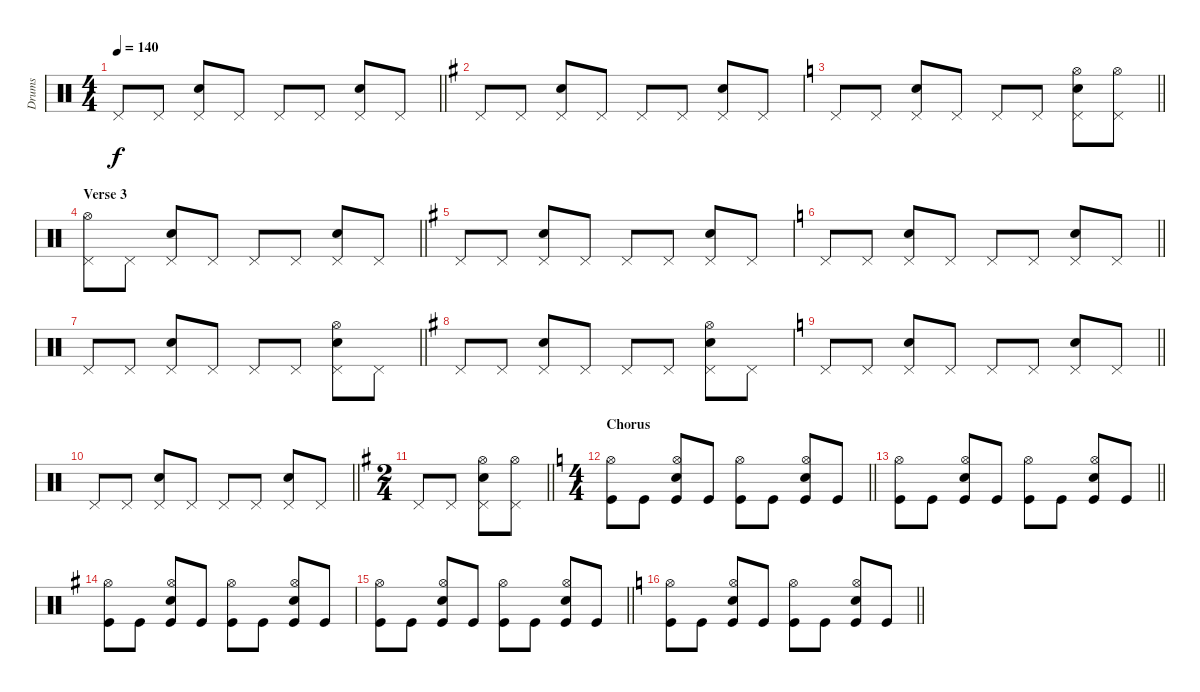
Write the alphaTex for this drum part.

\track ("Drums" "Drums") {instrument percussion}
\staff {score}
\articulation defaults
\ts (4 4)
\tempo 140
\clef neutral
\barLineRight lightlight
\ks c "Pedal Hi-Hat (hit)".8{dy f} "Pedal Hi-Hat (hit)".8
("Pedal Hi-Hat (hit)" "Snare (hit) 2").8 "Pedal Hi-Hat (hit)".8 "Pedal Hi-Hat (hit)".8 "Pedal Hi-Hat (hit)".8 ("Pedal Hi-Hat (hit)" "Snare (hit) 2").8 "Pedal Hi-Hat (hit)".8 |
\ks g "Pedal Hi-Hat (hit)".8 "Pedal Hi-Hat (hit)".8
("Pedal Hi-Hat (hit)" "Snare (hit) 2").8 "Pedal Hi-Hat (hit)".8 "Pedal Hi-Hat (hit)".8 "Pedal Hi-Hat (hit)".8 ("Pedal Hi-Hat (hit)" "Snare (hit) 2").8 "Pedal Hi-Hat (hit)".8 |
\barLineRight lightlight
\ks c "Pedal Hi-Hat (hit)".8 "Pedal Hi-Hat (hit)".8
("Pedal Hi-Hat (hit)" "Snare (hit) 2").8 "Pedal Hi-Hat (hit)".8 "Pedal Hi-Hat (hit)".8 "Pedal Hi-Hat (hit)".8 ("Pedal Hi-Hat (hit)" "Hi-Hat (open)" "Snare (hit) 2").8 ("Pedal Hi-Hat (hit)" "Hi-Hat (open)").8 |
\section ("" "Verse 3")
\barLineRight lightlight
("Pedal Hi-Hat (hit)" "Hi-Hat (open)").8 "Pedal Hi-Hat (hit)".8 ("Pedal Hi-Hat (hit)" "Snare (hit) 2").8 "Pedal Hi-Hat (hit)".8 "Pedal Hi-Hat (hit)".8 "Pedal Hi-Hat (hit)".8 ("Pedal Hi-Hat (hit)" "Snare (hit) 2").8 "Pedal Hi-Hat (hit)".8 |
\ks g "Pedal Hi-Hat (hit)".8 "Pedal Hi-Hat (hit)".8
("Pedal Hi-Hat (hit)" "Snare (hit) 2").8 "Pedal Hi-Hat (hit)".8 "Pedal Hi-Hat (hit)".8 "Pedal Hi-Hat (hit)".8 ("Pedal Hi-Hat (hit)" "Snare (hit) 2").8 "Pedal Hi-Hat (hit)".8 |
\barLineRight lightlight
\ks c "Pedal Hi-Hat (hit)".8 "Pedal Hi-Hat (hit)".8
("Pedal Hi-Hat (hit)" "Snare (hit) 2").8 "Pedal Hi-Hat (hit)".8 "Pedal Hi-Hat (hit)".8 "Pedal Hi-Hat (hit)".8 ("Pedal Hi-Hat (hit)" "Snare (hit) 2").8 "Pedal Hi-Hat (hit)".8 |
\barLineRight lightlight "Pedal Hi-Hat (hit)".8 "Pedal Hi-Hat (hit)".8
("Pedal Hi-Hat (hit)" "Snare (hit) 2").8 "Pedal Hi-Hat (hit)".8 "Pedal Hi-Hat (hit)".8 "Pedal Hi-Hat (hit)".8 ("Pedal Hi-Hat (hit)" "Hi-Hat (open)" "Snare (hit) 2").8 "Pedal Hi-Hat (hit)".8 |
\ks g "Pedal Hi-Hat (hit)".8 "Pedal Hi-Hat (hit)".8
("Pedal Hi-Hat (hit)" "Snare (hit) 2").8 "Pedal Hi-Hat (hit)".8 "Pedal Hi-Hat (hit)".8 "Pedal Hi-Hat (hit)".8 ("Pedal Hi-Hat (hit)" "Hi-Hat (open)" "Snare (hit) 2").8 "Pedal Hi-Hat (hit)".8 |
\barLineRight lightlight
\ks c "Pedal Hi-Hat (hit)".8 "Pedal Hi-Hat (hit)".8
("Pedal Hi-Hat (hit)" "Snare (hit) 2").8 "Pedal Hi-Hat (hit)".8 "Pedal Hi-Hat (hit)".8 "Pedal Hi-Hat (hit)".8 ("Pedal Hi-Hat (hit)" "Snare (hit) 2").8 "Pedal Hi-Hat (hit)".8 |
\barLineRight lightlight "Pedal Hi-Hat (hit)".8 "Pedal Hi-Hat (hit)".8
("Pedal Hi-Hat (hit)" "Snare (hit) 2").8 "Pedal Hi-Hat (hit)".8 "Pedal Hi-Hat (hit)".8 "Pedal Hi-Hat (hit)".8 ("Pedal Hi-Hat (hit)" "Snare (hit) 2").8 "Pedal Hi-Hat (hit)".8 |
\ts (2 4)
\barLineRight lightlight
\ks g "Pedal Hi-Hat (hit)".8 "Pedal Hi-Hat (hit)".8
("Pedal Hi-Hat (hit)" "Hi-Hat (open)" "Snare (hit) 2").8 ("Pedal Hi-Hat (hit)" "Hi-Hat (open)").8 |
\ts (4 4)
\section ("" "Chorus")
\barLineRight lightlight
\ks c
("Hi-Hat (open)" "Kick (hit)").8 "Kick (hit)".8 ("Hi-Hat (open)" "Snare (hit) 2" "Kick (hit)").8 "Kick (hit)".8 ("Hi-Hat (open)" "Kick (hit)").8 "Kick (hit)".8 ("Hi-Hat (open)" "Snare (hit) 2" "Kick (hit)").8 "Kick (hit)".8 |
\barLineRight lightlight
("Hi-Hat (open)" "Kick (hit)").8 "Kick (hit)".8 ("Hi-Hat (open)" "Snare (hit) 2" "Kick (hit)").8 "Kick (hit)".8 ("Hi-Hat (open)" "Kick (hit)").8 "Kick (hit)".8 ("Hi-Hat (open)" "Snare (hit) 2" "Kick (hit)").8 "Kick (hit)".8 |
\ks g
("Hi-Hat (open)" "Kick (hit)").8 "Kick (hit)".8 ("Hi-Hat (open)" "Snare (hit) 2" "Kick (hit)").8 "Kick (hit)".8 ("Hi-Hat (open)" "Kick (hit)").8 "Kick (hit)".8 ("Hi-Hat (open)" "Snare (hit) 2" "Kick (hit)").8 "Kick (hit)".8 |
\barLineRight lightlight
("Hi-Hat (open)" "Kick (hit)").8 "Kick (hit)".8 ("Hi-Hat (open)" "Snare (hit) 2" "Kick (hit)").8 "Kick (hit)".8 ("Hi-Hat (open)" "Kick (hit)").8 "Kick (hit)".8 ("Hi-Hat (open)" "Snare (hit) 2" "Kick (hit)").8 "Kick (hit)".8 |
\barLineRight lightlight
\ks c
("Hi-Hat (open)" "Kick (hit)").8 "Kick (hit)".8 ("Hi-Hat (open)" "Snare (hit) 2" "Kick (hit)").8 "Kick (hit)".8 ("Hi-Hat (open)" "Kick (hit)").8 "Kick (hit)".8 ("Hi-Hat (open)" "Snare (hit) 2" "Kick (hit)").8 "Kick (hit)".8
